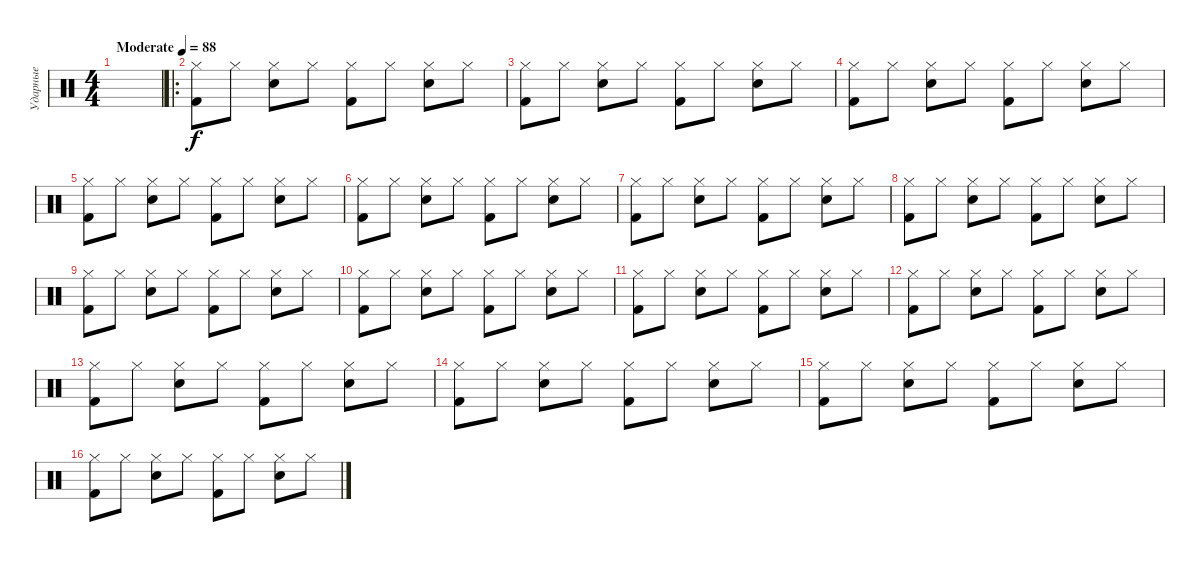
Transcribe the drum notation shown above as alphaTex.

\track ("Ударные" "Ударные") {instrument percussion}
\staff {score}
\articulation defaults
\ts (4 4)
\tempo (88 "Moderate")
\clef neutral
\ks c
|
\ro
("Hi-Hat (closed)" "Kick (hit) 2").8 "Hi-Hat (closed)".8 ("Hi-Hat (closed)" "Snare (hit) 2").8 "Hi-Hat (closed)".8 ("Hi-Hat (closed)" "Kick (hit) 2").8 "Hi-Hat (closed)".8 ("Hi-Hat (closed)" "Snare (hit) 2").8 "Hi-Hat (closed)".8 |
("Hi-Hat (closed)" "Kick (hit) 2").8 "Hi-Hat (closed)".8 ("Hi-Hat (closed)" "Snare (hit) 2").8 "Hi-Hat (closed)".8 ("Hi-Hat (closed)" "Kick (hit) 2").8 "Hi-Hat (closed)".8 ("Hi-Hat (closed)" "Snare (hit) 2").8 "Hi-Hat (closed)".8 |
("Hi-Hat (closed)" "Kick (hit) 2").8 "Hi-Hat (closed)".8 ("Hi-Hat (closed)" "Snare (hit) 2").8 "Hi-Hat (closed)".8 ("Hi-Hat (closed)" "Kick (hit) 2").8 "Hi-Hat (closed)".8 ("Hi-Hat (closed)" "Snare (hit) 2").8 "Hi-Hat (closed)".8 |
("Hi-Hat (closed)" "Kick (hit) 2").8 "Hi-Hat (closed)".8 ("Hi-Hat (closed)" "Snare (hit) 2").8 "Hi-Hat (closed)".8 ("Hi-Hat (closed)" "Kick (hit) 2").8 "Hi-Hat (closed)".8 ("Hi-Hat (closed)" "Snare (hit) 2").8 "Hi-Hat (closed)".8 |
("Hi-Hat (closed)" "Kick (hit) 2").8 "Hi-Hat (closed)".8 ("Hi-Hat (closed)" "Snare (hit) 2").8 "Hi-Hat (closed)".8 ("Hi-Hat (closed)" "Kick (hit) 2").8 "Hi-Hat (closed)".8 ("Hi-Hat (closed)" "Snare (hit) 2").8 "Hi-Hat (closed)".8 |
("Hi-Hat (closed)" "Kick (hit) 2").8 "Hi-Hat (closed)".8 ("Hi-Hat (closed)" "Snare (hit) 2").8 "Hi-Hat (closed)".8 ("Hi-Hat (closed)" "Kick (hit) 2").8 "Hi-Hat (closed)".8 ("Hi-Hat (closed)" "Snare (hit) 2").8 "Hi-Hat (closed)".8 |
("Hi-Hat (closed)" "Kick (hit) 2").8 "Hi-Hat (closed)".8 ("Hi-Hat (closed)" "Snare (hit) 2").8 "Hi-Hat (closed)".8 ("Hi-Hat (closed)" "Kick (hit) 2").8 "Hi-Hat (closed)".8 ("Hi-Hat (closed)" "Snare (hit) 2").8 "Hi-Hat (closed)".8 |
("Hi-Hat (closed)" "Kick (hit) 2").8 "Hi-Hat (closed)".8 ("Hi-Hat (closed)" "Snare (hit) 2").8 "Hi-Hat (closed)".8 ("Hi-Hat (closed)" "Kick (hit) 2").8 "Hi-Hat (closed)".8 ("Hi-Hat (closed)" "Snare (hit) 2").8 "Hi-Hat (closed)".8 |
("Hi-Hat (closed)" "Kick (hit) 2").8 "Hi-Hat (closed)".8 ("Hi-Hat (closed)" "Snare (hit) 2").8 "Hi-Hat (closed)".8 ("Hi-Hat (closed)" "Kick (hit) 2").8 "Hi-Hat (closed)".8 ("Hi-Hat (closed)" "Snare (hit) 2").8 "Hi-Hat (closed)".8 |
("Hi-Hat (closed)" "Kick (hit) 2").8 "Hi-Hat (closed)".8 ("Hi-Hat (closed)" "Snare (hit) 2").8 "Hi-Hat (closed)".8 ("Hi-Hat (closed)" "Kick (hit) 2").8 "Hi-Hat (closed)".8 ("Hi-Hat (closed)" "Snare (hit) 2").8 "Hi-Hat (closed)".8 |
("Hi-Hat (closed)" "Kick (hit) 2").8 "Hi-Hat (closed)".8 ("Hi-Hat (closed)" "Snare (hit) 2").8 "Hi-Hat (closed)".8 ("Hi-Hat (closed)" "Kick (hit) 2").8 "Hi-Hat (closed)".8 ("Hi-Hat (closed)" "Snare (hit) 2").8 "Hi-Hat (closed)".8 |
("Hi-Hat (closed)" "Kick (hit) 2").8 "Hi-Hat (closed)".8 ("Hi-Hat (closed)" "Snare (hit) 2").8 "Hi-Hat (closed)".8 ("Hi-Hat (closed)" "Kick (hit) 2").8 "Hi-Hat (closed)".8 ("Hi-Hat (closed)" "Snare (hit) 2").8 "Hi-Hat (closed)".8 |
("Hi-Hat (closed)" "Kick (hit) 2").8 "Hi-Hat (closed)".8 ("Hi-Hat (closed)" "Snare (hit) 2").8 "Hi-Hat (closed)".8 ("Hi-Hat (closed)" "Kick (hit) 2").8 "Hi-Hat (closed)".8 ("Hi-Hat (closed)" "Snare (hit) 2").8 "Hi-Hat (closed)".8 |
("Hi-Hat (closed)" "Kick (hit) 2").8 "Hi-Hat (closed)".8 ("Hi-Hat (closed)" "Snare (hit) 2").8 "Hi-Hat (closed)".8 ("Hi-Hat (closed)" "Kick (hit) 2").8 "Hi-Hat (closed)".8 ("Hi-Hat (closed)" "Snare (hit) 2").8 "Hi-Hat (closed)".8 |
("Hi-Hat (closed)" "Kick (hit) 2").8 "Hi-Hat (closed)".8 ("Hi-Hat (closed)" "Snare (hit) 2").8 "Hi-Hat (closed)".8 ("Hi-Hat (closed)" "Kick (hit) 2").8 "Hi-Hat (closed)".8 ("Hi-Hat (closed)" "Snare (hit) 2").8 "Hi-Hat (closed)".8
